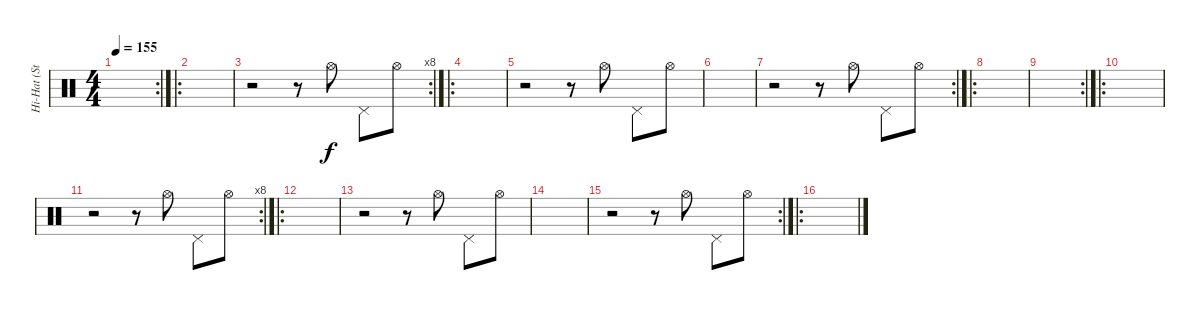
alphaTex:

\track ("Hi-Hat (Stephen Morris)" "Hi-Hat (St") {instrument percussion}
\staff {score}
\articulation defaults
\rc 2
\ts (4 4)
\tempo 155
\clef neutral
\ks c
|
\ro
|
\rc 8
r.2 r.8 "Hi-Hat (open)".8 "Pedal Hi-Hat (hit)".8 "Hi-Hat (open)".8 |
\ro
|
r.2 r.8 "Hi-Hat (open)".8 "Pedal Hi-Hat (hit)".8 "Hi-Hat (open)".8 |
|
\rc 2
r.2 r.8 "Hi-Hat (open)".8 "Pedal Hi-Hat (hit)".8 "Hi-Hat (open)".8 |
\ro
|
\rc 2
|
\ro
|
\rc 8
r.2 r.8 "Hi-Hat (open)".8 "Pedal Hi-Hat (hit)".8 "Hi-Hat (open)".8 |
\ro
|
r.2 r.8 "Hi-Hat (open)".8 "Pedal Hi-Hat (hit)".8 "Hi-Hat (open)".8 |
|
\rc 2
r.2 r.8 "Hi-Hat (open)".8 "Pedal Hi-Hat (hit)".8 "Hi-Hat (open)".8 |
\ro
